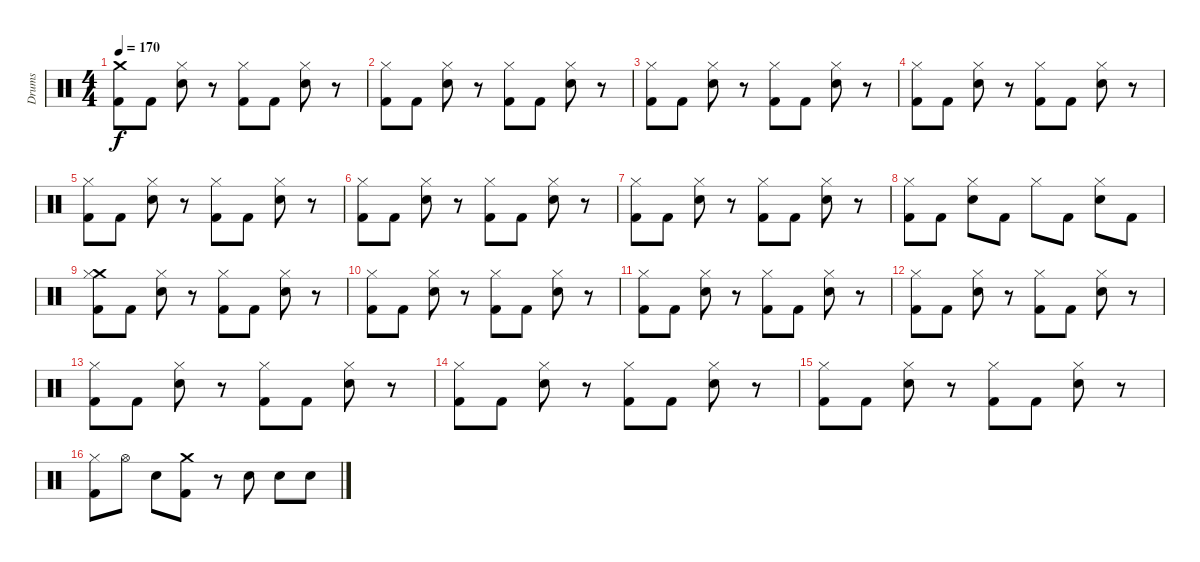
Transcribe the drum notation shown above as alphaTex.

\track ("Drums" "Drums") {instrument percussion}
\staff {score}
\articulation defaults
\ts (4 4)
\tempo 170
\clef neutral
\ks c
("Crash medium (hit)" "Kick (hit) 2").8{dy f} "Kick (hit) 2".8 ("Hi-Hat (closed)" "Electric Snare (hit)").8 r.8 ("Hi-Hat (closed)" "Kick (hit) 2").8 "Kick (hit) 2".8 ("Hi-Hat (closed)" "Electric Snare (hit)").8 r.8 |
("Hi-Hat (closed)" "Kick (hit) 2").8 "Kick (hit) 2".8 ("Hi-Hat (closed)" "Electric Snare (hit)").8 r.8 ("Hi-Hat (closed)" "Kick (hit) 2").8 "Kick (hit) 2".8 ("Hi-Hat (closed)" "Electric Snare (hit)").8 r.8 |
("Hi-Hat (closed)" "Kick (hit) 2").8 "Kick (hit) 2".8 ("Hi-Hat (closed)" "Electric Snare (hit)").8 r.8 ("Hi-Hat (closed)" "Kick (hit) 2").8 "Kick (hit) 2".8 ("Hi-Hat (closed)" "Electric Snare (hit)").8 r.8 |
("Hi-Hat (closed)" "Kick (hit) 2").8 "Kick (hit) 2".8 ("Hi-Hat (closed)" "Electric Snare (hit)").8 r.8 ("Hi-Hat (closed)" "Kick (hit) 2").8 "Kick (hit) 2".8 ("Hi-Hat (closed)" "Electric Snare (hit)").8 r.8 |
("Hi-Hat (closed)" "Kick (hit) 2").8 "Kick (hit) 2".8 ("Hi-Hat (closed)" "Electric Snare (hit)").8 r.8 ("Hi-Hat (closed)" "Kick (hit) 2").8 "Kick (hit) 2".8 ("Hi-Hat (closed)" "Electric Snare (hit)").8 r.8 |
("Hi-Hat (closed)" "Kick (hit) 2").8 "Kick (hit) 2".8 ("Hi-Hat (closed)" "Electric Snare (hit)").8 r.8 ("Hi-Hat (closed)" "Kick (hit) 2").8 "Kick (hit) 2".8 ("Hi-Hat (closed)" "Electric Snare (hit)").8 r.8 |
("Hi-Hat (closed)" "Kick (hit) 2").8 "Kick (hit) 2".8 ("Hi-Hat (closed)" "Electric Snare (hit)").8 r.8 ("Hi-Hat (closed)" "Kick (hit) 2").8 "Kick (hit) 2".8 ("Hi-Hat (closed)" "Electric Snare (hit)").8 r.8 |
("Hi-Hat (closed)" "Kick (hit) 2").8 "Kick (hit) 2".8 ("Hi-Hat (closed)" "Electric Snare (hit)").8 "Kick (hit) 2".8 "Hi-Hat (closed)".8 "Kick (hit) 2".8 ("Hi-Hat (closed)" "Electric Snare (hit)").8 "Kick (hit) 2".8 |
("Crash medium (hit)" "Hi-Hat (closed)" "Kick (hit) 2").8 "Kick (hit) 2".8 ("Hi-Hat (closed)" "Electric Snare (hit)").8 r.8 ("Hi-Hat (closed)" "Kick (hit) 2").8 "Kick (hit) 2".8 ("Hi-Hat (closed)" "Electric Snare (hit)").8 r.8 |
("Hi-Hat (closed)" "Kick (hit) 2").8 "Kick (hit) 2".8 ("Hi-Hat (closed)" "Electric Snare (hit)").8 r.8 ("Hi-Hat (closed)" "Kick (hit) 2").8 "Kick (hit) 2".8 ("Hi-Hat (closed)" "Electric Snare (hit)").8 r.8 |
("Hi-Hat (closed)" "Kick (hit) 2").8 "Kick (hit) 2".8 ("Hi-Hat (closed)" "Electric Snare (hit)").8 r.8 ("Hi-Hat (closed)" "Kick (hit) 2").8 "Kick (hit) 2".8 ("Hi-Hat (closed)" "Electric Snare (hit)").8 r.8 |
("Hi-Hat (closed)" "Kick (hit) 2").8 "Kick (hit) 2".8 ("Hi-Hat (closed)" "Electric Snare (hit)").8 r.8 ("Hi-Hat (closed)" "Kick (hit) 2").8 "Kick (hit) 2".8 ("Hi-Hat (closed)" "Electric Snare (hit)").8 r.8 |
("Hi-Hat (closed)" "Kick (hit) 2").8 "Kick (hit) 2".8 ("Hi-Hat (closed)" "Electric Snare (hit)").8 r.8 ("Hi-Hat (closed)" "Kick (hit) 2").8 "Kick (hit) 2".8 ("Hi-Hat (closed)" "Electric Snare (hit)").8 r.8 |
("Hi-Hat (closed)" "Kick (hit) 2").8 "Kick (hit) 2".8 ("Hi-Hat (closed)" "Electric Snare (hit)").8 r.8 ("Hi-Hat (closed)" "Kick (hit) 2").8 "Kick (hit) 2".8 ("Hi-Hat (closed)" "Electric Snare (hit)").8 r.8 |
("Hi-Hat (closed)" "Kick (hit) 2").8 "Kick (hit) 2".8 ("Hi-Hat (closed)" "Electric Snare (hit)").8 r.8 ("Hi-Hat (closed)" "Kick (hit) 2").8 "Kick (hit) 2".8 ("Hi-Hat (closed)" "Electric Snare (hit)").8 r.8 |
("Hi-Hat (closed)" "Kick (hit) 2").8 "Hi-Hat (open)".8 "Electric Snare (hit)".8 ("Crash medium (hit)" "Kick (hit) 2").8 r.8 "Electric Snare (hit)".8 "Electric Snare (hit)".8 "Electric Snare (hit)".8
